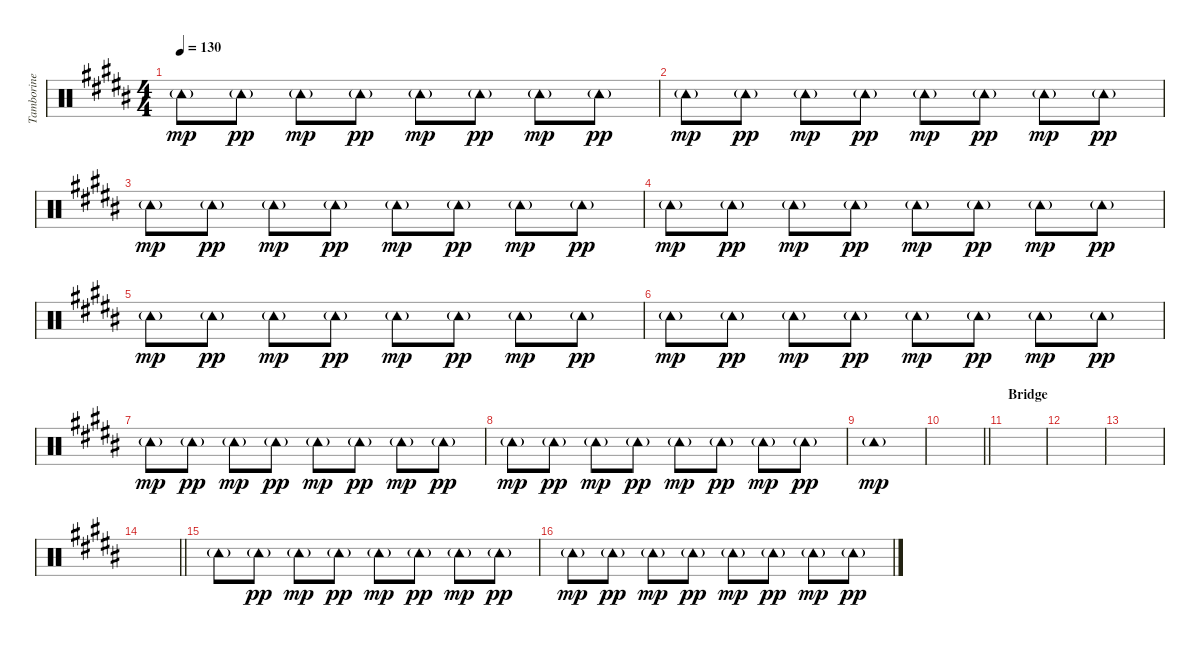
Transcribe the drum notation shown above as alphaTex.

\track ("Tamborine" "Tamborine") {instrument percussion}
\staff {score}
\articulation defaults
\ts (4 4)
\tempo 130
\clef neutral
\ks b "Tambourine (hit)"{g}.8{dy mp} "Tambourine (hit)"{g}.8{dy pp} "Tambourine (hit)"{g}.8{dy mp} "Tambourine (hit)"{g}.8{dy pp} "Tambourine (hit)"{g}.8{dy mp} "Tambourine (hit)"{g}.8{dy pp} "Tambourine (hit)"{g}.8{dy mp} "Tambourine (hit)"{g}.8{dy pp}
|
"Tambourine (hit)"{g}.8{dy mp} "Tambourine (hit)"{g}.8{dy pp} "Tambourine (hit)"{g}.8{dy mp} "Tambourine (hit)"{g}.8{dy pp} "Tambourine (hit)"{g}.8{dy mp} "Tambourine (hit)"{g}.8{dy pp} "Tambourine (hit)"{g}.8{dy mp} "Tambourine (hit)"{g}.8{dy pp} |
"Tambourine (hit)"{g}.8{dy mp} "Tambourine (hit)"{g}.8{dy pp} "Tambourine (hit)"{g}.8{dy mp} "Tambourine (hit)"{g}.8{dy pp} "Tambourine (hit)"{g}.8{dy mp} "Tambourine (hit)"{g}.8{dy pp} "Tambourine (hit)"{g}.8{dy mp} "Tambourine (hit)"{g}.8{dy pp} |
"Tambourine (hit)"{g}.8{dy mp} "Tambourine (hit)"{g}.8{dy pp} "Tambourine (hit)"{g}.8{dy mp} "Tambourine (hit)"{g}.8{dy pp} "Tambourine (hit)"{g}.8{dy mp} "Tambourine (hit)"{g}.8{dy pp} "Tambourine (hit)"{g}.8{dy mp} "Tambourine (hit)"{g}.8{dy pp} |
"Tambourine (hit)"{g}.8{dy mp} "Tambourine (hit)"{g}.8{dy pp} "Tambourine (hit)"{g}.8{dy mp} "Tambourine (hit)"{g}.8{dy pp} "Tambourine (hit)"{g}.8{dy mp} "Tambourine (hit)"{g}.8{dy pp} "Tambourine (hit)"{g}.8{dy mp} "Tambourine (hit)"{g}.8{dy pp} |
"Tambourine (hit)"{g}.8{dy mp} "Tambourine (hit)"{g}.8{dy pp} "Tambourine (hit)"{g}.8{dy mp} "Tambourine (hit)"{g}.8{dy pp} "Tambourine (hit)"{g}.8{dy mp} "Tambourine (hit)"{g}.8{dy pp} "Tambourine (hit)"{g}.8{dy mp} "Tambourine (hit)"{g}.8{dy pp} |
"Tambourine (hit)"{g}.8{dy mp} "Tambourine (hit)"{g}.8{dy pp} "Tambourine (hit)"{g}.8{dy mp} "Tambourine (hit)"{g}.8{dy pp} "Tambourine (hit)"{g}.8{dy mp} "Tambourine (hit)"{g}.8{dy pp} "Tambourine (hit)"{g}.8{dy mp} "Tambourine (hit)"{g}.8{dy pp} |
"Tambourine (hit)"{g}.8{dy mp} "Tambourine (hit)"{g}.8{dy pp} "Tambourine (hit)"{g}.8{dy mp} "Tambourine (hit)"{g}.8{dy pp} "Tambourine (hit)"{g}.8{dy mp} "Tambourine (hit)"{g}.8{dy pp} "Tambourine (hit)"{g}.8{dy mp} "Tambourine (hit)"{g}.8{dy pp} |
"Tambourine (hit)"{g}.1{dy mp} |
\barLineRight lightlight
|
\section ("" "Bridge")
|
|
|
\barLineRight lightlight
|
"Tambourine (hit)"{g}.8 "Tambourine (hit)"{g}.8{dy pp} "Tambourine (hit)"{g}.8{dy mp} "Tambourine (hit)"{g}.8{dy pp} "Tambourine (hit)"{g}.8{dy mp} "Tambourine (hit)"{g}.8{dy pp} "Tambourine (hit)"{g}.8{dy mp} "Tambourine (hit)"{g}.8{dy pp} |
"Tambourine (hit)"{g}.8{dy mp} "Tambourine (hit)"{g}.8{dy pp} "Tambourine (hit)"{g}.8{dy mp} "Tambourine (hit)"{g}.8{dy pp} "Tambourine (hit)"{g}.8{dy mp} "Tambourine (hit)"{g}.8{dy pp} "Tambourine (hit)"{g}.8{dy mp} "Tambourine (hit)"{g}.8{dy pp}
